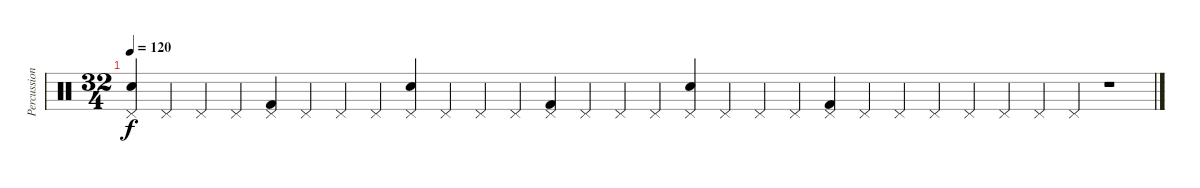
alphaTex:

\track ("Percussion" "Percussion") {instrument percussion}
\staff {score}
\articulation defaults
\ts (32 4)
\tempo 120
\clef neutral
\ks c
("Pedal Hi-Hat (hit)" "Snare (hit) 2").4{dy f} "Pedal Hi-Hat (hit)".4 "Pedal Hi-Hat (hit)".4 "Pedal Hi-Hat (hit)".4 ("Pedal Hi-Hat (hit)" "Kick (hit) 2").4 "Pedal Hi-Hat (hit)".4 "Pedal Hi-Hat (hit)".4 "Pedal Hi-Hat (hit)".4 ("Pedal Hi-Hat (hit)" "Snare (hit) 2").4 "Pedal Hi-Hat (hit)".4 "Pedal Hi-Hat (hit)".4 "Pedal Hi-Hat (hit)".4 ("Pedal Hi-Hat (hit)" "Kick (hit) 2").4 "Pedal Hi-Hat (hit)".4 "Pedal Hi-Hat (hit)".4 "Pedal Hi-Hat (hit)".4 ("Pedal Hi-Hat (hit)" "Snare (hit) 2").4 "Pedal Hi-Hat (hit)".4 "Pedal Hi-Hat (hit)".4 "Pedal Hi-Hat (hit)".4 ("Pedal Hi-Hat (hit)" "Kick (hit) 2").4 "Pedal Hi-Hat (hit)".4 "Pedal Hi-Hat (hit)".4 "Pedal Hi-Hat (hit)".4 "Pedal Hi-Hat (hit)".4 "Pedal Hi-Hat (hit)".4 "Pedal Hi-Hat (hit)".4 "Pedal Hi-Hat (hit)".4 r.1
